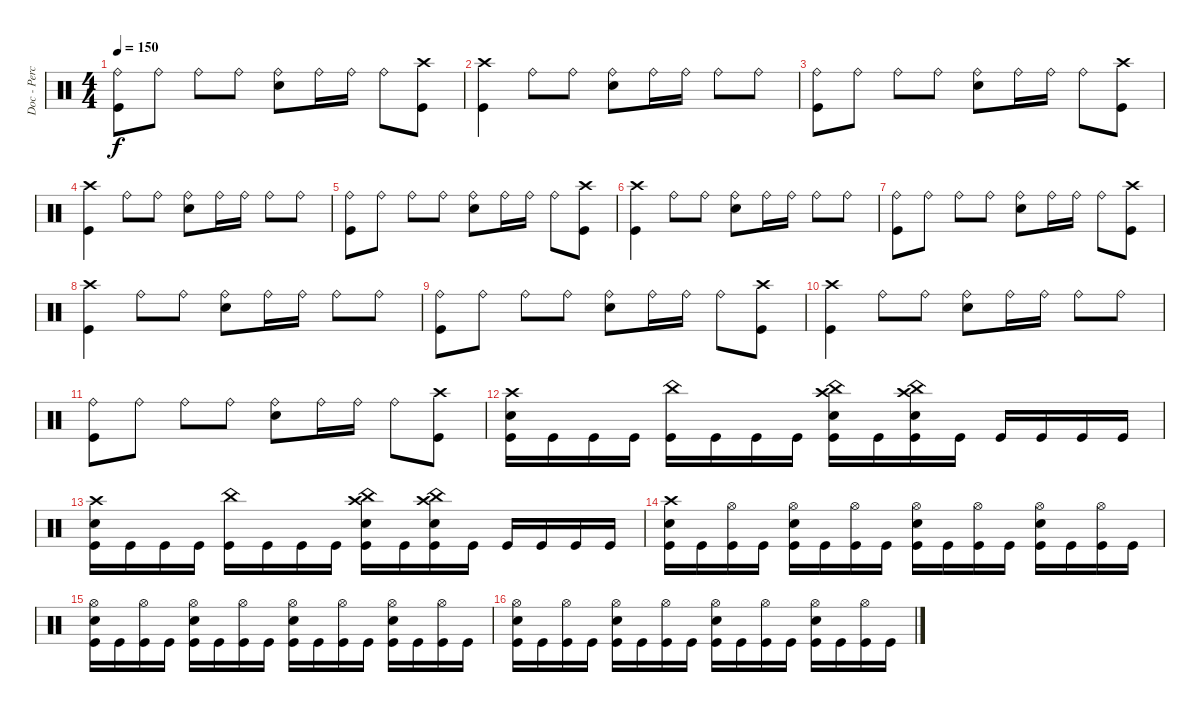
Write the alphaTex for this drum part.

\track ("Doc - Percussion" "Doc - Perc") {instrument percussion}
\staff {score}
\articulation defaults
\ts (4 4)
\tempo 150
\clef neutral
\ks c
("Ride (bell)" "Kick (hit)").8{dy f} "Ride (bell)".8 "Ride (bell)".8 "Ride (bell)".8 ("Ride (bell)" "Electric Snare (hit)").8 "Ride (bell)".16 "Ride (bell)".16 "Ride (bell)".8 ("Crash high (hit)" "Kick (hit)").8 |
("Crash high (hit)" "Kick (hit)").4 "Ride (bell)".8 "Ride (bell)".8 ("Ride (bell)" "Electric Snare (hit)").8 "Ride (bell)".16 "Ride (bell)".16 "Ride (bell)".8 "Ride (bell)".8 |
("Ride (bell)" "Kick (hit)").8 "Ride (bell)".8 "Ride (bell)".8 "Ride (bell)".8 ("Ride (bell)" "Electric Snare (hit)").8 "Ride (bell)".16 "Ride (bell)".16 "Ride (bell)".8 ("Crash high (hit)" "Kick (hit)").8 |
("Crash high (hit)" "Kick (hit)").4 "Ride (bell)".8 "Ride (bell)".8 ("Ride (bell)" "Electric Snare (hit)").8 "Ride (bell)".16 "Ride (bell)".16 "Ride (bell)".8 "Ride (bell)".8 |
("Ride (bell)" "Kick (hit)").8 "Ride (bell)".8 "Ride (bell)".8 "Ride (bell)".8 ("Ride (bell)" "Electric Snare (hit)").8 "Ride (bell)".16 "Ride (bell)".16 "Ride (bell)".8 ("Crash high (hit)" "Kick (hit)").8 |
("Crash high (hit)" "Kick (hit)").4 "Ride (bell)".8 "Ride (bell)".8 ("Ride (bell)" "Electric Snare (hit)").8 "Ride (bell)".16 "Ride (bell)".16 "Ride (bell)".8 "Ride (bell)".8 |
("Ride (bell)" "Kick (hit)").8 "Ride (bell)".8 "Ride (bell)".8 "Ride (bell)".8 ("Ride (bell)" "Electric Snare (hit)").8 "Ride (bell)".16 "Ride (bell)".16 "Ride (bell)".8 ("Crash high (hit)" "Kick (hit)").8 |
("Crash high (hit)" "Kick (hit)").4 "Ride (bell)".8 "Ride (bell)".8 ("Ride (bell)" "Electric Snare (hit)").8 "Ride (bell)".16 "Ride (bell)".16 "Ride (bell)".8 "Ride (bell)".8 |
("Ride (bell)" "Kick (hit)").8 "Ride (bell)".8 "Ride (bell)".8 "Ride (bell)".8 ("Ride (bell)" "Electric Snare (hit)").8 "Ride (bell)".16 "Ride (bell)".16 "Ride (bell)".8 ("Crash high (hit)" "Kick (hit)").8 |
("Crash high (hit)" "Kick (hit)").4 "Ride (bell)".8 "Ride (bell)".8 ("Ride (bell)" "Electric Snare (hit)").8 "Ride (bell)".16 "Ride (bell)".16 "Ride (bell)".8 "Ride (bell)".8 |
("Ride (bell)" "Kick (hit)").8 "Ride (bell)".8 "Ride (bell)".8 "Ride (bell)".8 ("Ride (bell)" "Electric Snare (hit)").8 "Ride (bell)".16 "Ride (bell)".16 "Ride (bell)".8 ("Crash high (hit)" "Kick (hit)").8 |
("Crash high (hit)" "Electric Snare (hit)" "Kick (hit)").16 "Kick (hit)".16 "Kick (hit)".16 "Kick (hit)".16 ("China (hit)" "Kick (hit)").16 "Kick (hit)".16 "Kick (hit)".16 "Kick (hit)".16 ("Crash high (hit)" "China (hit)" "Electric Snare (hit)" "Kick (hit)").16 "Kick (hit)".16 ("Crash high (hit)" "China (hit)" "Electric Snare (hit)" "Kick (hit)").16 "Kick (hit)".16 "Kick (hit)".16 "Kick (hit)".16 "Kick (hit)".16 "Kick (hit)".16 |
("Crash high (hit)" "Electric Snare (hit)" "Kick (hit)").16 "Kick (hit)".16 "Kick (hit)".16 "Kick (hit)".16 ("China (hit)" "Kick (hit)").16 "Kick (hit)".16 "Kick (hit)".16 "Kick (hit)".16 ("Crash high (hit)" "China (hit)" "Electric Snare (hit)" "Kick (hit)").16 "Kick (hit)".16 ("Crash high (hit)" "China (hit)" "Electric Snare (hit)" "Kick (hit)").16 "Kick (hit)".16 "Kick (hit)".16 "Kick (hit)".16 "Kick (hit)".16 "Kick (hit)".16 |
("Crash high (hit)" "Electric Snare (hit)" "Kick (hit)").16 "Kick (hit)".16 ("Hi-Hat (open)" "Kick (hit)").16 "Kick (hit)".16 ("Hi-Hat (open)" "Electric Snare (hit)" "Kick (hit)").16 "Kick (hit)".16 ("Hi-Hat (open)" "Kick (hit)").16 "Kick (hit)".16 ("Hi-Hat (open)" "Electric Snare (hit)" "Kick (hit)").16 "Kick (hit)".16 ("Hi-Hat (open)" "Kick (hit)").16 "Kick (hit)".16 ("Hi-Hat (open)" "Electric Snare (hit)" "Kick (hit)").16 "Kick (hit)".16 ("Hi-Hat (open)" "Kick (hit)").16 "Kick (hit)".16 |
("Hi-Hat (open)" "Electric Snare (hit)" "Kick (hit)").16 "Kick (hit)".16 ("Hi-Hat (open)" "Kick (hit)").16 "Kick (hit)".16 ("Hi-Hat (open)" "Electric Snare (hit)" "Kick (hit)").16 "Kick (hit)".16 ("Hi-Hat (open)" "Kick (hit)").16 "Kick (hit)".16 ("Hi-Hat (open)" "Electric Snare (hit)" "Kick (hit)").16 "Kick (hit)".16 ("Hi-Hat (open)" "Kick (hit)").16 "Kick (hit)".16 ("Hi-Hat (open)" "Electric Snare (hit)" "Kick (hit)").16 "Kick (hit)".16 ("Hi-Hat (open)" "Kick (hit)").16 "Kick (hit)".16 |
("Hi-Hat (open)" "Electric Snare (hit)" "Kick (hit)").16 "Kick (hit)".16 ("Hi-Hat (open)" "Kick (hit)").16 "Kick (hit)".16 ("Hi-Hat (open)" "Electric Snare (hit)" "Kick (hit)").16 "Kick (hit)".16 ("Hi-Hat (open)" "Kick (hit)").16 "Kick (hit)".16 ("Hi-Hat (open)" "Electric Snare (hit)" "Kick (hit)").16 "Kick (hit)".16 ("Hi-Hat (open)" "Kick (hit)").16 "Kick (hit)".16 ("Hi-Hat (open)" "Electric Snare (hit)" "Kick (hit)").16 "Kick (hit)".16 ("Hi-Hat (open)" "Kick (hit)").16 "Kick (hit)".16
